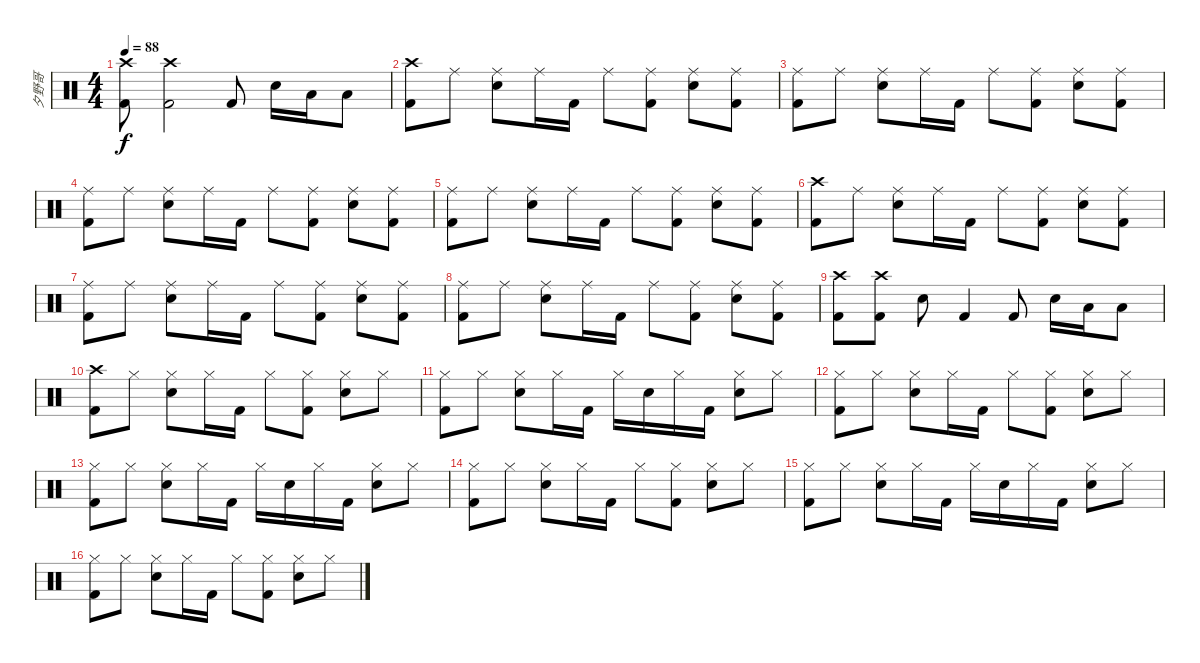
\track ("夕野哥" "夕野哥") {instrument percussion}
\staff {score}
\articulation defaults
\ts (4 4)
\tempo 88
\clef neutral
\ks c
("Crash high (hit)" "Kick (hit) 2").8{dy f} ("Crash high (hit)" "Kick (hit) 2").2 "Kick (hit) 2".8 "Electric Snare (hit)".16 "Low Floor Tom (hit)".16 "Low Tom (hit)".8 |
("Crash high (hit)" "Kick (hit) 2").8 "Ride (middle)".8 ("Ride (middle)" "Electric Snare (hit)").8 "Ride (middle)".16 "Kick (hit) 2".16 "Ride (middle)".8 ("Ride (middle)" "Kick (hit) 2").8 ("Ride (middle)" "Electric Snare (hit)").8 ("Ride (middle)" "Kick (hit) 2").8 |
("Ride (middle)" "Kick (hit) 2").8 "Ride (middle)".8 ("Ride (middle)" "Electric Snare (hit)").8 "Ride (middle)".16 "Kick (hit) 2".16 "Ride (middle)".8 ("Ride (middle)" "Kick (hit) 2").8 ("Ride (middle)" "Electric Snare (hit)").8 ("Ride (middle)" "Kick (hit) 2").8 |
("Ride (middle)" "Kick (hit) 2").8 "Ride (middle)".8 ("Ride (middle)" "Electric Snare (hit)").8 "Ride (middle)".16 "Kick (hit) 2".16 "Ride (middle)".8 ("Ride (middle)" "Kick (hit) 2").8 ("Ride (middle)" "Electric Snare (hit)").8 ("Ride (middle)" "Kick (hit) 2").8 |
("Ride (middle)" "Kick (hit) 2").8 "Ride (middle)".8 ("Ride (middle)" "Electric Snare (hit)").8 "Ride (middle)".16 "Kick (hit) 2".16 "Ride (middle)".8 ("Ride (middle)" "Kick (hit) 2").8 ("Ride (middle)" "Electric Snare (hit)").8 ("Ride (middle)" "Kick (hit) 2").8 |
("Crash high (hit)" "Kick (hit) 2").8 "Ride (middle)".8 ("Ride (middle)" "Electric Snare (hit)").8 "Ride (middle)".16 "Kick (hit) 2".16 "Ride (middle)".8 ("Ride (middle)" "Kick (hit) 2").8 ("Ride (middle)" "Electric Snare (hit)").8 ("Ride (middle)" "Kick (hit) 2").8 |
("Ride (middle)" "Kick (hit) 2").8 "Ride (middle)".8 ("Ride (middle)" "Electric Snare (hit)").8 "Ride (middle)".16 "Kick (hit) 2".16 "Ride (middle)".8 ("Ride (middle)" "Kick (hit) 2").8 ("Ride (middle)" "Electric Snare (hit)").8 ("Ride (middle)" "Kick (hit) 2").8 |
("Ride (middle)" "Kick (hit) 2").8 "Ride (middle)".8 ("Ride (middle)" "Electric Snare (hit)").8 "Ride (middle)".16 "Kick (hit) 2".16 "Ride (middle)".8 ("Ride (middle)" "Kick (hit) 2").8 ("Ride (middle)" "Electric Snare (hit)").8 ("Ride (middle)" "Kick (hit) 2").8 |
("Crash high (hit)" "Kick (hit) 2").8 ("Crash high (hit)" "Kick (hit) 2").8 "Electric Snare (hit)".8 "Kick (hit) 2".4 "Kick (hit) 2".8 "Electric Snare (hit)".16 "Low Floor Tom (hit)".16 "Low Tom (hit)".8 |
("Crash high (hit)" "Kick (hit) 2").8 "Hi-Hat (closed)".8 ("Hi-Hat (closed)" "Electric Snare (hit)").8 "Hi-Hat (closed)".16 "Kick (hit) 2".16 "Hi-Hat (closed)".8 ("Hi-Hat (closed)" "Kick (hit) 2").8 ("Hi-Hat (closed)" "Electric Snare (hit)").8 "Hi-Hat (closed)".8 |
("Hi-Hat (closed)" "Kick (hit) 2").8 "Hi-Hat (closed)".8 ("Hi-Hat (closed)" "Electric Snare (hit)").8 "Hi-Hat (closed)".16 "Kick (hit) 2".16 "Hi-Hat (closed)".16 "Electric Snare (hit)".16 "Hi-Hat (closed)".16 "Kick (hit) 2".16 ("Hi-Hat (closed)" "Electric Snare (hit)").8 "Hi-Hat (closed)".8 |
("Hi-Hat (closed)" "Kick (hit) 2").8 "Hi-Hat (closed)".8 ("Hi-Hat (closed)" "Electric Snare (hit)").8 "Hi-Hat (closed)".16 "Kick (hit) 2".16 "Hi-Hat (closed)".8 ("Hi-Hat (closed)" "Kick (hit) 2").8 ("Hi-Hat (closed)" "Electric Snare (hit)").8 "Hi-Hat (closed)".8 |
("Hi-Hat (closed)" "Kick (hit) 2").8 "Hi-Hat (closed)".8 ("Hi-Hat (closed)" "Electric Snare (hit)").8 "Hi-Hat (closed)".16 "Kick (hit) 2".16 "Hi-Hat (closed)".16 "Electric Snare (hit)".16 "Hi-Hat (closed)".16 "Kick (hit) 2".16 ("Hi-Hat (closed)" "Electric Snare (hit)").8 "Hi-Hat (closed)".8 |
("Hi-Hat (closed)" "Kick (hit) 2").8 "Hi-Hat (closed)".8 ("Hi-Hat (closed)" "Electric Snare (hit)").8 "Hi-Hat (closed)".16 "Kick (hit) 2".16 "Hi-Hat (closed)".8 ("Hi-Hat (closed)" "Kick (hit) 2").8 ("Hi-Hat (closed)" "Electric Snare (hit)").8 "Hi-Hat (closed)".8 |
("Hi-Hat (closed)" "Kick (hit) 2").8 "Hi-Hat (closed)".8 ("Hi-Hat (closed)" "Electric Snare (hit)").8 "Hi-Hat (closed)".16 "Kick (hit) 2".16 "Hi-Hat (closed)".16 "Electric Snare (hit)".16 "Hi-Hat (closed)".16 "Kick (hit) 2".16 ("Hi-Hat (closed)" "Electric Snare (hit)").8 "Hi-Hat (closed)".8 |
("Hi-Hat (closed)" "Kick (hit) 2").8 "Hi-Hat (closed)".8 ("Hi-Hat (closed)" "Electric Snare (hit)").8 "Hi-Hat (closed)".16 "Kick (hit) 2".16 "Hi-Hat (closed)".8 ("Hi-Hat (closed)" "Kick (hit) 2").8 ("Hi-Hat (closed)" "Electric Snare (hit)").8 "Hi-Hat (closed)".8
